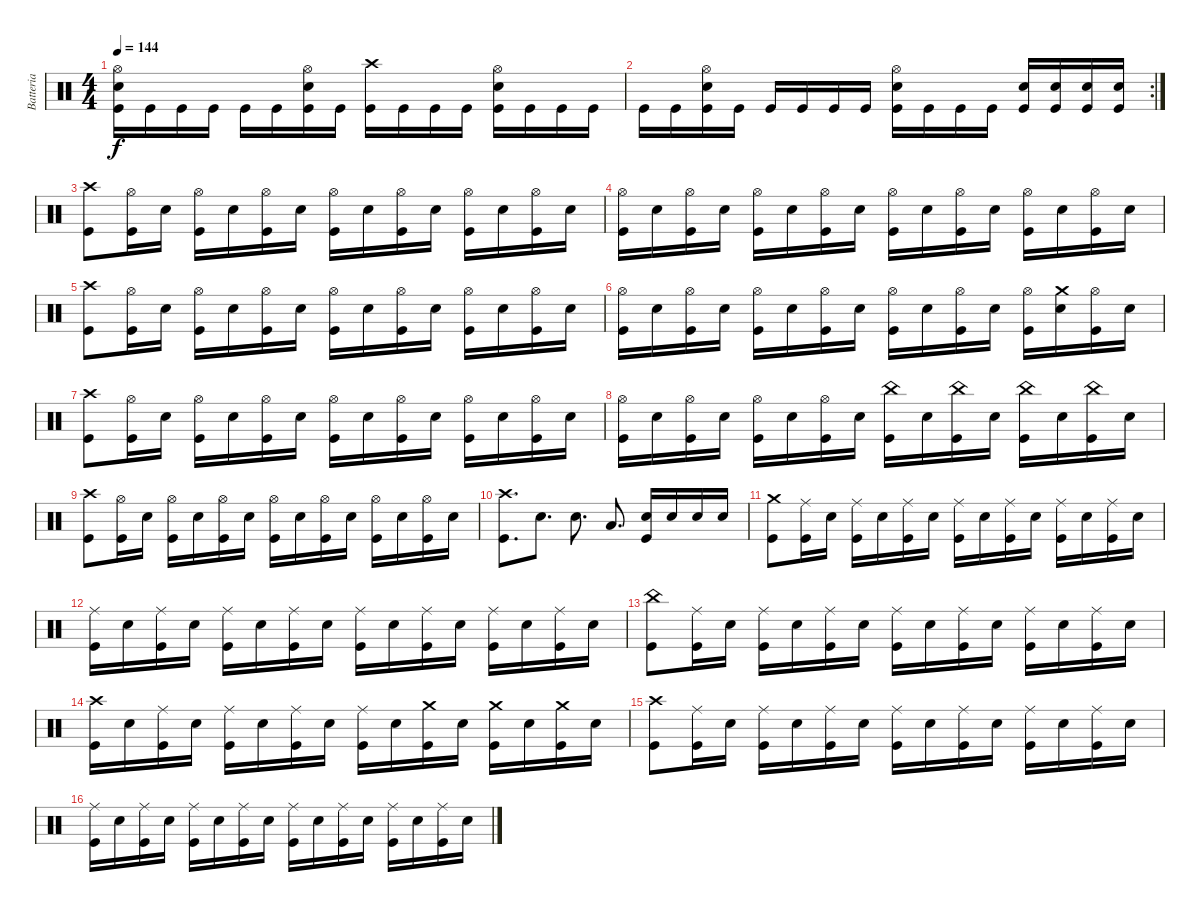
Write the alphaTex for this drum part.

\track ("Batteria" "Batteria") {instrument percussion}
\staff {score}
\articulation defaults
\ts (4 4)
\tempo 144
\clef neutral
\ks c
("Hi-Hat (open)" "Snare (hit) 2" "Kick (hit)").16{dy f} "Kick (hit)".16 "Kick (hit)".16 "Kick (hit)".16 "Kick (hit)".16 "Kick (hit)".16 ("Hi-Hat (open)" "Snare (hit) 2" "Kick (hit)").16 "Kick (hit)".16 ("Crash high (hit)" "Kick (hit)").16 "Kick (hit)".16 "Kick (hit)".16 "Kick (hit)".16 ("Hi-Hat (open)" "Snare (hit) 2" "Kick (hit)").16 "Kick (hit)".16 "Kick (hit)".16 "Kick (hit)".16 |
\rc 2 "Kick (hit)".16 "Kick (hit)".16
("Hi-Hat (open)" "Snare (hit) 2" "Kick (hit)").16 "Kick (hit)".16 "Kick (hit)".16 "Kick (hit)".16 "Kick (hit)".16 "Kick (hit)".16 ("Hi-Hat (open)" "Snare (hit) 2" "Kick (hit)").16 "Kick (hit)".16 "Kick (hit)".16 "Kick (hit)".16 ("Snare (hit) 2" "Kick (hit)").16 ("Snare (hit) 2" "Kick (hit)").16 ("Snare (hit) 2" "Kick (hit)").16 ("Snare (hit) 2" "Kick (hit)").16 |
("Crash high (hit)" "Kick (hit)").8 ("Hi-Hat (open)" "Kick (hit)").16 "Snare (hit) 2".16 ("Hi-Hat (open)" "Kick (hit)").16 "Snare (hit) 2".16 ("Hi-Hat (open)" "Kick (hit)").16 "Snare (hit) 2".16 ("Hi-Hat (open)" "Kick (hit)").16 "Snare (hit) 2".16 ("Hi-Hat (open)" "Kick (hit)").16 "Snare (hit) 2".16 ("Hi-Hat (open)" "Kick (hit)").16 "Snare (hit) 2".16 ("Hi-Hat (open)" "Kick (hit)").16 "Snare (hit) 2".16 |
("Hi-Hat (open)" "Kick (hit)").16 "Snare (hit) 2".16 ("Hi-Hat (open)" "Kick (hit)").16 "Snare (hit) 2".16 ("Hi-Hat (open)" "Kick (hit)").16 "Snare (hit) 2".16 ("Hi-Hat (open)" "Kick (hit)").16 "Snare (hit) 2".16 ("Hi-Hat (open)" "Kick (hit)").16 "Snare (hit) 2".16 ("Hi-Hat (open)" "Kick (hit)").16 "Snare (hit) 2".16 ("Hi-Hat (open)" "Kick (hit)").16 "Snare (hit) 2".16 ("Hi-Hat (open)" "Kick (hit)").16 "Snare (hit) 2".16 |
("Crash high (hit)" "Kick (hit)").8 ("Hi-Hat (open)" "Kick (hit)").16 "Snare (hit) 2".16 ("Hi-Hat (open)" "Kick (hit)").16 "Snare (hit) 2".16 ("Hi-Hat (open)" "Kick (hit)").16 "Snare (hit) 2".16 ("Hi-Hat (open)" "Kick (hit)").16 "Snare (hit) 2".16 ("Hi-Hat (open)" "Kick (hit)").16 "Snare (hit) 2".16 ("Hi-Hat (open)" "Kick (hit)").16 "Snare (hit) 2".16 ("Hi-Hat (open)" "Kick (hit)").16 "Snare (hit) 2".16 |
("Hi-Hat (open)" "Kick (hit)").16 "Snare (hit) 2".16 ("Hi-Hat (open)" "Kick (hit)").16 "Snare (hit) 2".16 ("Hi-Hat (open)" "Kick (hit)").16 "Snare (hit) 2".16 ("Hi-Hat (open)" "Kick (hit)").16 "Snare (hit) 2".16 ("Hi-Hat (open)" "Kick (hit)").16 "Snare (hit) 2".16 ("Hi-Hat (open)" "Kick (hit)").16 "Snare (hit) 2".16 ("Hi-Hat (open)" "Kick (hit)").16 ("Crash medium (hit)" "Snare (hit) 2").16 ("Hi-Hat (open)" "Kick (hit)").16 "Snare (hit) 2".16 |
("Crash high (hit)" "Kick (hit)").8 ("Hi-Hat (open)" "Kick (hit)").16 "Snare (hit) 2".16 ("Hi-Hat (open)" "Kick (hit)").16 "Snare (hit) 2".16 ("Hi-Hat (open)" "Kick (hit)").16 "Snare (hit) 2".16 ("Hi-Hat (open)" "Kick (hit)").16 "Snare (hit) 2".16 ("Hi-Hat (open)" "Kick (hit)").16 "Snare (hit) 2".16 ("Hi-Hat (open)" "Kick (hit)").16 "Snare (hit) 2".16 ("Hi-Hat (open)" "Kick (hit)").16 "Snare (hit) 2".16 |
("Hi-Hat (open)" "Kick (hit)").16 "Snare (hit) 2".16 ("Hi-Hat (open)" "Kick (hit)").16 "Snare (hit) 2".16 ("Hi-Hat (open)" "Kick (hit)").16 "Snare (hit) 2".16 ("Hi-Hat (open)" "Kick (hit)").16 "Snare (hit) 2".16 ("China (hit)" "Kick (hit)").16 "Snare (hit) 2".16 ("China (hit)" "Kick (hit)").16 "Snare (hit) 2".16 ("China (hit)" "Kick (hit)").16 "Snare (hit) 2".16 ("China (hit)" "Kick (hit)").16 "Snare (hit) 2".16 |
("Crash high (hit)" "Kick (hit)").8 ("Hi-Hat (open)" "Kick (hit)").16 "Snare (hit) 2".16 ("Hi-Hat (open)" "Kick (hit)").16 "Snare (hit) 2".16 ("Hi-Hat (open)" "Kick (hit)").16 "Snare (hit) 2".16 ("Hi-Hat (open)" "Kick (hit)").16 "Snare (hit) 2".16 ("Hi-Hat (open)" "Kick (hit)").16 "Snare (hit) 2".16 ("Hi-Hat (open)" "Kick (hit)").16 "Snare (hit) 2".16 ("Hi-Hat (open)" "Kick (hit)").16 "Snare (hit) 2".16 |
("Crash high (hit)" "Kick (hit)").8{d} "Snare (hit) 2".8{d} "Snare (hit) 2".8{d} "Low Tom (hit)".8{d} ("Snare (hit) 2" "Kick (hit)").16 "Snare (hit) 2".16 "Snare (hit) 2".16 "Snare (hit) 2".16 |
("Crash medium (hit)" "Kick (hit)").8 ("Ride (middle)" "Kick (hit)").16 "Snare (hit) 2".16 ("Ride (middle)" "Kick (hit)").16 "Snare (hit) 2".16 ("Ride (middle)" "Kick (hit)").16 "Snare (hit) 2".16 ("Ride (middle)" "Kick (hit)").16 "Snare (hit) 2".16 ("Ride (middle)" "Kick (hit)").16 "Snare (hit) 2".16 ("Ride (middle)" "Kick (hit)").16 "Snare (hit) 2".16 ("Ride (middle)" "Kick (hit)").16 "Snare (hit) 2".16 |
("Ride (middle)" "Kick (hit)").16 "Snare (hit) 2".16 ("Ride (middle)" "Kick (hit)").16 "Snare (hit) 2".16 ("Ride (middle)" "Kick (hit)").16 "Snare (hit) 2".16 ("Ride (middle)" "Kick (hit)").16 "Snare (hit) 2".16 ("Ride (middle)" "Kick (hit)").16 "Snare (hit) 2".16 ("Ride (middle)" "Kick (hit)").16 "Snare (hit) 2".16 ("Ride (middle)" "Kick (hit)").16 "Snare (hit) 2".16 ("Ride (middle)" "Kick (hit)").16 "Snare (hit) 2".16 |
("China (hit)" "Kick (hit)").8 ("Ride (middle)" "Kick (hit)").16 "Snare (hit) 2".16 ("Ride (middle)" "Kick (hit)").16 "Snare (hit) 2".16 ("Ride (middle)" "Kick (hit)").16 "Snare (hit) 2".16 ("Ride (middle)" "Kick (hit)").16 "Snare (hit) 2".16 ("Ride (middle)" "Kick (hit)").16 "Snare (hit) 2".16 ("Ride (middle)" "Kick (hit)").16 "Snare (hit) 2".16 ("Ride (middle)" "Kick (hit)").16 "Snare (hit) 2".16 |
("Crash high (hit)" "Kick (hit)").16 "Snare (hit) 2".16 ("Ride (middle)" "Kick (hit)").16 "Snare (hit) 2".16 ("Ride (middle)" "Kick (hit)").16 "Snare (hit) 2".16 ("Ride (middle)" "Kick (hit)").16 "Snare (hit) 2".16 ("Ride (middle)" "Kick (hit)").16 "Snare (hit) 2".16 ("Crash medium (hit)" "Kick (hit)").16 "Snare (hit) 2".16 ("Crash medium (hit)" "Kick (hit)").16 "Snare (hit) 2".16 ("Crash medium (hit)" "Kick (hit)").16 "Snare (hit) 2".16 |
("Crash high (hit)" "Kick (hit)").8 ("Ride (middle)" "Kick (hit)").16 "Snare (hit) 2".16 ("Ride (middle)" "Kick (hit)").16 "Snare (hit) 2".16 ("Ride (middle)" "Kick (hit)").16 "Snare (hit) 2".16 ("Ride (middle)" "Kick (hit)").16 "Snare (hit) 2".16 ("Ride (middle)" "Kick (hit)").16 "Snare (hit) 2".16 ("Ride (middle)" "Kick (hit)").16 "Snare (hit) 2".16 ("Ride (middle)" "Kick (hit)").16 "Snare (hit) 2".16 |
("Ride (middle)" "Kick (hit)").16 "Snare (hit) 2".16 ("Ride (middle)" "Kick (hit)").16 "Snare (hit) 2".16 ("Ride (middle)" "Kick (hit)").16 "Snare (hit) 2".16 ("Ride (middle)" "Kick (hit)").16 "Snare (hit) 2".16 ("Ride (middle)" "Kick (hit)").16 "Snare (hit) 2".16 ("Ride (middle)" "Kick (hit)").16 "Snare (hit) 2".16 ("Ride (middle)" "Kick (hit)").16 "Snare (hit) 2".16 ("Ride (middle)" "Kick (hit)").16 "Snare (hit) 2".16
